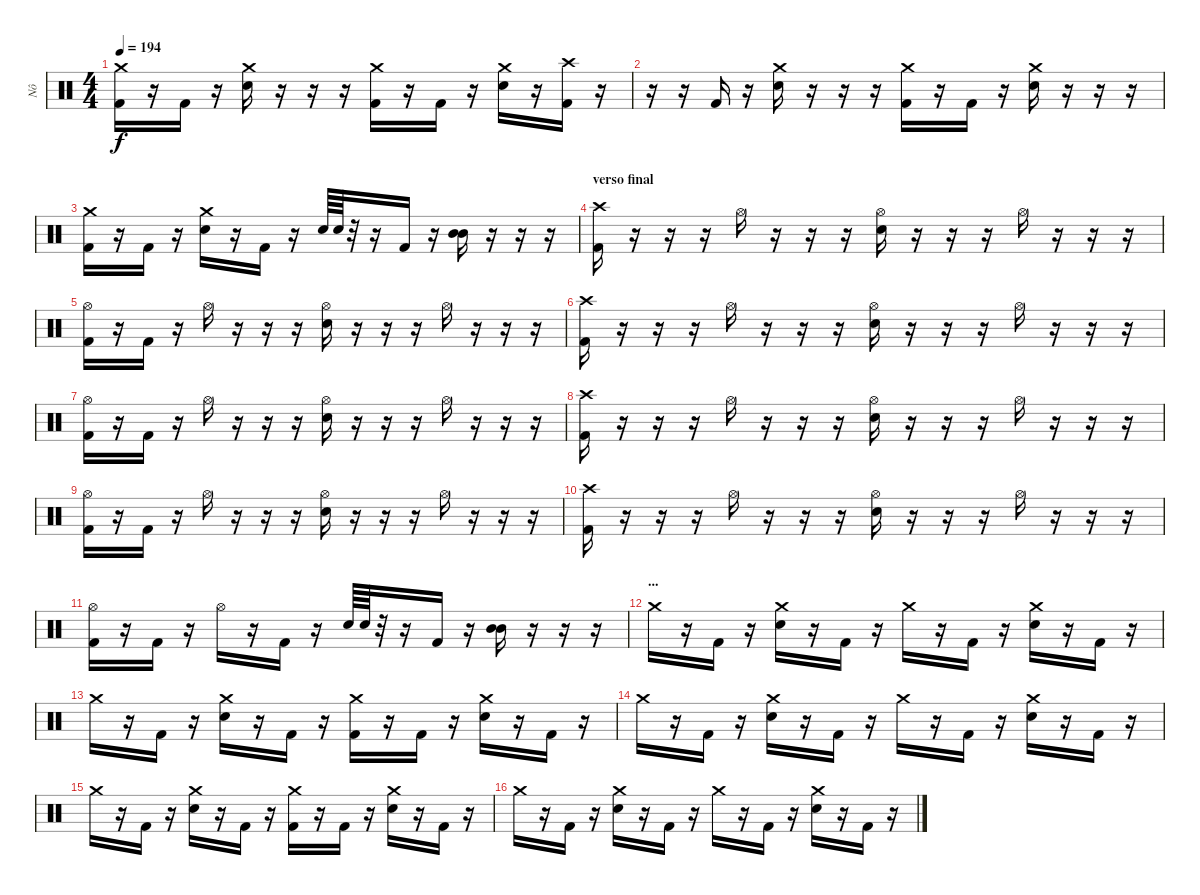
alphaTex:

\track ("Nô" "Nô") {instrument percussion}
\staff {score}
\articulation defaults
\ts (4 4)
\tempo 194
\clef neutral
\ks c
("Crash medium (hit)" "Kick (hit) 2").16{dy f} r.16 "Kick (hit) 2".16 r.16 ("Crash medium (hit)" "Electric Snare (hit)").16 r.16 r.16 r.16 ("Crash medium (hit)" "Kick (hit) 2").16 r.16 "Kick (hit) 2".16 r.16 ("Crash medium (hit)" "Electric Snare (hit)").16 r.16 ("Crash high (hit)" "Kick (hit) 2").16 r.16 |
r.16 r.16 "Kick (hit) 2".16 r.16 ("Crash medium (hit)" "Electric Snare (hit)").16 r.16 r.16 r.16 ("Crash medium (hit)" "Kick (hit) 2").16 r.16 "Kick (hit) 2".16 r.16 ("Crash medium (hit)" "Electric Snare (hit)").16 r.16 r.16 r.16 |
("Crash medium (hit)" "Kick (hit) 2").16 r.16 "Kick (hit) 2".16 r.16 ("Crash medium (hit)" "Electric Snare (hit)").16 r.16 "Kick (hit) 2".16 r.16 "Electric Snare (hit)".64 "Electric Snare (hit)".64 r.32 r.16 "Kick (hit) 2".16 r.16 ("Mid Tom (hit)" "Mid Tom (hit)").16 r.16 r.16 r.16 |
\section ("" "verso final")
("Crash high (hit)" "Kick (hit) 2").16 r.16 r.16 r.16 "Hi-Hat (open)".16 r.16 r.16 r.16 ("Hi-Hat (open)" "Electric Snare (hit)").16 r.16 r.16 r.16 "Hi-Hat (open)".16 r.16 r.16 r.16 |
("Hi-Hat (open)" "Kick (hit) 2").16 r.16 "Kick (hit) 2".16 r.16 "Hi-Hat (open)".16 r.16 r.16 r.16 ("Hi-Hat (open)" "Electric Snare (hit)").16 r.16 r.16 r.16 "Hi-Hat (open)".16 r.16 r.16 r.16 |
("Crash high (hit)" "Kick (hit) 2").16 r.16 r.16 r.16 "Hi-Hat (open)".16 r.16 r.16 r.16 ("Hi-Hat (open)" "Electric Snare (hit)").16 r.16 r.16 r.16 "Hi-Hat (open)".16 r.16 r.16 r.16 |
("Hi-Hat (open)" "Kick (hit) 2").16 r.16 "Kick (hit) 2".16 r.16 "Hi-Hat (open)".16 r.16 r.16 r.16 ("Hi-Hat (open)" "Electric Snare (hit)").16 r.16 r.16 r.16 "Hi-Hat (open)".16 r.16 r.16 r.16 |
("Crash high (hit)" "Kick (hit) 2").16 r.16 r.16 r.16 "Hi-Hat (open)".16 r.16 r.16 r.16 ("Hi-Hat (open)" "Electric Snare (hit)").16 r.16 r.16 r.16 "Hi-Hat (open)".16 r.16 r.16 r.16 |
("Hi-Hat (open)" "Kick (hit) 2").16 r.16 "Kick (hit) 2".16 r.16 "Hi-Hat (open)".16 r.16 r.16 r.16 ("Hi-Hat (open)" "Electric Snare (hit)").16 r.16 r.16 r.16 "Hi-Hat (open)".16 r.16 r.16 r.16 |
("Crash high (hit)" "Kick (hit) 2").16 r.16 r.16 r.16 "Hi-Hat (open)".16 r.16 r.16 r.16 ("Hi-Hat (open)" "Electric Snare (hit)").16 r.16 r.16 r.16 "Hi-Hat (open)".16 r.16 r.16 r.16 |
("Hi-Hat (open)" "Kick (hit) 2").16 r.16 "Kick (hit) 2".16 r.16 "Hi-Hat (open)".16 r.16 "Kick (hit) 2".16 r.16 "Electric Snare (hit)".64 "Electric Snare (hit)".64 r.32 r.16 "Kick (hit) 2".16 r.16 ("Mid Tom (hit)" "Mid Tom (hit)").16 r.16 r.16 r.16 |
\section ("" "...")
"Crash medium (hit)".16 r.16 "Kick (hit) 2".16 r.16 ("Crash medium (hit)" "Electric Snare (hit)").16 r.16 "Kick (hit) 2".16 r.16 "Crash medium (hit)".16 r.16 "Kick (hit) 2".16 r.16 ("Crash medium (hit)" "Electric Snare (hit)").16 r.16 "Kick (hit) 2".16 r.16 |
"Crash medium (hit)".16 r.16 "Kick (hit) 2".16 r.16 ("Crash medium (hit)" "Electric Snare (hit)").16 r.16 "Kick (hit) 2".16 r.16 ("Crash medium (hit)" "Kick (hit) 2").16 r.16 "Kick (hit) 2".16 r.16 ("Crash medium (hit)" "Electric Snare (hit)").16 r.16 "Kick (hit) 2".16 r.16 |
"Crash medium (hit)".16 r.16 "Kick (hit) 2".16 r.16 ("Crash medium (hit)" "Electric Snare (hit)").16 r.16 "Kick (hit) 2".16 r.16 "Crash medium (hit)".16 r.16 "Kick (hit) 2".16 r.16 ("Crash medium (hit)" "Electric Snare (hit)").16 r.16 "Kick (hit) 2".16 r.16 |
"Crash medium (hit)".16 r.16 "Kick (hit) 2".16 r.16 ("Crash medium (hit)" "Electric Snare (hit)").16 r.16 "Kick (hit) 2".16 r.16 ("Crash medium (hit)" "Kick (hit) 2").16 r.16 "Kick (hit) 2".16 r.16 ("Crash medium (hit)" "Electric Snare (hit)").16 r.16 "Kick (hit) 2".16 r.16 |
"Crash medium (hit)".16 r.16 "Kick (hit) 2".16 r.16 ("Crash medium (hit)" "Electric Snare (hit)").16 r.16 "Kick (hit) 2".16 r.16 "Crash medium (hit)".16 r.16 "Kick (hit) 2".16 r.16 ("Crash medium (hit)" "Electric Snare (hit)").16 r.16 "Kick (hit) 2".16 r.16
